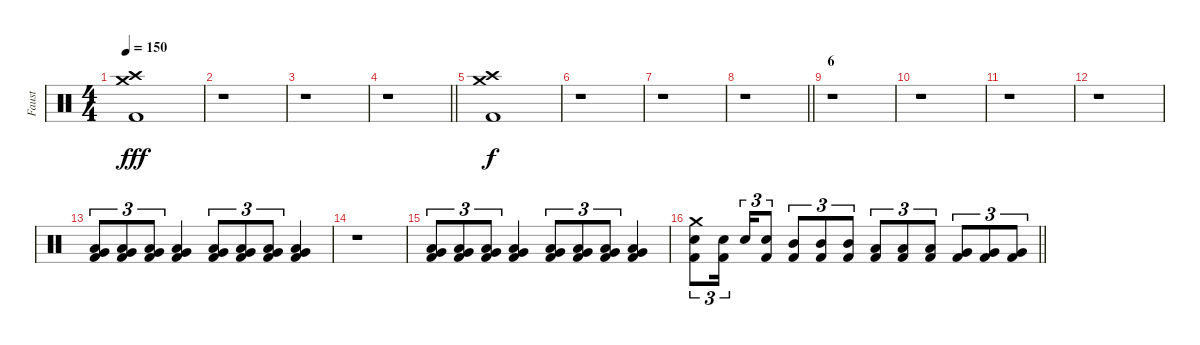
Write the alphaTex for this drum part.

\track ("Faust" "Faust") {instrument percussion}
\staff {score}
\articulation defaults
\ts (4 4)
\section ("" "")
\tempo 150
\clef neutral
\ks c
("Crash medium (hit)" "Crash high (hit)" "Kick (hit) 2").1{dy fff} |
r.1 |
r.1 |
\barLineRight lightlight
r.1 |
\section ("" "")
("Crash medium (hit)" "Crash high (hit)" "Kick (hit) 2").1{dy f} |
r.1 |
r.1 |
\barLineRight lightlight
r.1 |
\section ("" "6")
r.1 |
r.1 |
r.1 |
r.1 |
("Very Low Tom (hit)" "Low Floor Tom (hit)" "Kick (hit) 2").8{tu (3 2)} ("Very Low Tom (hit)" "Low Floor Tom (hit)" "Kick (hit) 2").8{tu (3 2)} ("Very Low Tom (hit)" "Low Floor Tom (hit)" "Kick (hit) 2").8{tu (3 2)} ("Very Low Tom (hit)" "Low Floor Tom (hit)" "Kick (hit) 2").4 ("Very Low Tom (hit)" "Low Floor Tom (hit)" "Kick (hit) 2").8{tu (3 2)} ("Very Low Tom (hit)" "Low Floor Tom (hit)" "Kick (hit) 2").8{tu (3 2)} ("Very Low Tom (hit)" "Low Floor Tom (hit)" "Kick (hit) 2").8{tu (3 2)} ("Very Low Tom (hit)" "Low Floor Tom (hit)" "Kick (hit) 2").4 |
r.1 |
("Very Low Tom (hit)" "Low Floor Tom (hit)" "Kick (hit) 2").8{tu (3 2)} ("Very Low Tom (hit)" "Low Floor Tom (hit)" "Kick (hit) 2").8{tu (3 2)} ("Very Low Tom (hit)" "Low Floor Tom (hit)" "Kick (hit) 2").8{tu (3 2)} ("Very Low Tom (hit)" "Low Floor Tom (hit)" "Kick (hit) 2").4 ("Very Low Tom (hit)" "Low Floor Tom (hit)" "Kick (hit) 2").8{tu (3 2)} ("Very Low Tom (hit)" "Low Floor Tom (hit)" "Kick (hit) 2").8{tu (3 2)} ("Very Low Tom (hit)" "Low Floor Tom (hit)" "Kick (hit) 2").8{tu (3 2)} ("Very Low Tom (hit)" "Low Floor Tom (hit)" "Kick (hit) 2").4 |
\barLineRight lightlight
("Crash medium (hit)" "Electric Snare (hit)" "Kick (hit) 2").8{tu (3 2)} ("Electric Snare (hit)" "Kick (hit) 2").16{tu (3 2) beam splitsecondary} "Electric Snare (hit)".16{tu (3 2)} ("Electric Snare (hit)" "Kick (hit) 2").8{tu (3 2)} ("Mid Tom (hit)" "Kick (hit) 2").8{tu (3 2)} ("Mid Tom (hit)" "Kick (hit) 2").8{tu (3 2)} ("Mid Tom (hit)" "Kick (hit) 2").8{tu (3 2)} ("Low Tom (hit)" "Kick (hit) 2").8{tu (3 2)} ("Low Tom (hit)" "Kick (hit) 2").8{tu (3 2)} ("Low Tom (hit)" "Kick (hit) 2").8{tu (3 2)} ("Very Low Tom (hit)" "Kick (hit) 2").8{tu (3 2)} ("Very Low Tom (hit)" "Kick (hit) 2").8{tu (3 2)} ("Very Low Tom (hit)" "Kick (hit) 2").8{tu (3 2)}
